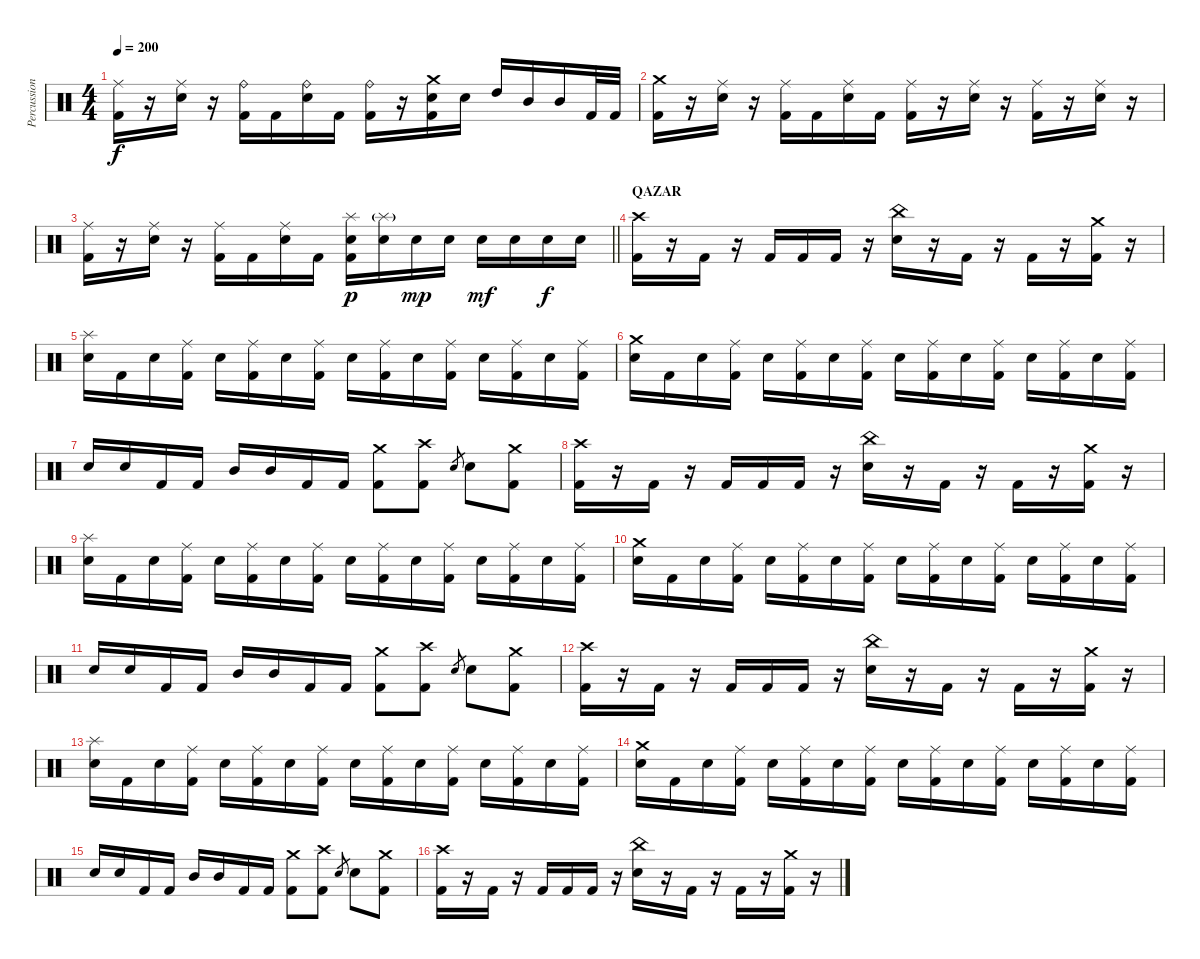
\track ("Percussion" "Percussion") {instrument percussion}
\staff {score}
\articulation defaults
\ts (4 4)
\tempo 200
\clef neutral
\ks c
("Ride (middle)" "Kick (hit) 2").16{dy f} r.16 ("Ride (middle)" "Electric Snare (hit)").16 r.16 ("Ride (bell)" "Kick (hit) 2").16 "Kick (hit) 2".16 ("Ride (bell)" "Electric Snare (hit)").16 "Kick (hit) 2".16 ("Ride (bell)" "Kick (hit) 2").16 r.16 ("Crash medium (hit)" "Electric Snare (hit)" "Kick (hit) 2").16 "Electric Snare (hit)".16 "High Tom (hit)".16 "Mid Tom (hit)".16 "Mid Tom (hit)".16 "Kick (hit) 2".32 "Kick (hit) 2".32 |
("Crash medium (hit)" "Kick (hit) 2").16 r.16 ("Ride (middle)" "Electric Snare (hit)").16 r.16 ("Ride (middle)" "Kick (hit) 2").16 "Kick (hit) 2".16 ("Ride (middle)" "Electric Snare (hit)").16 "Kick (hit) 2".16 ("Ride (middle)" "Kick (hit) 2").16 r.16 ("Ride (middle)" "Electric Snare (hit)").16 r.16 ("Ride (middle)" "Kick (hit) 2").16 r.16 ("Ride (middle)" "Electric Snare (hit)").16 r.16 |
\barLineRight lightlight
("Ride (middle)" "Kick (hit) 2").16 r.16 ("Ride (middle)" "Electric Snare (hit)").16 r.16 ("Ride (middle)" "Kick (hit) 2").16 "Kick (hit) 2".16 ("Ride (middle)" "Electric Snare (hit)").16 "Kick (hit) 2".16 ("Splash (hit)" "Electric Snare (hit)" "Kick (hit) 2").16{dy p} ("Splash (hit)"{g} "Electric Snare (hit)").16 "Electric Snare (hit)".16{dy mp} "Electric Snare (hit)".16 "Electric Snare (hit)".16{dy mf} "Electric Snare (hit)".16 "Electric Snare (hit)".16{dy f} "Electric Snare (hit)".16 |
\section ("" "QAZAR")
("Crash high (hit)" "Kick (hit) 2").16 r.16 "Kick (hit) 2".16 r.16 "Kick (hit) 2".16 "Kick (hit) 2".16 "Kick (hit) 2".16 r.16 ("China (hit)" "Electric Snare (hit)").16 r.16 "Kick (hit) 2".16 r.16 "Kick (hit) 2".16 r.16 ("Crash medium (hit)" "Kick (hit) 2").16 r.16 |
("Splash (hit)" "Electric Snare (hit)").16 "Kick (hit) 2".16 "Electric Snare (hit)".16 ("Ride (middle)" "Kick (hit) 2").16 "Electric Snare (hit)".16 ("Ride (middle)" "Kick (hit) 2").16 "Electric Snare (hit)".16 ("Ride (middle)" "Kick (hit) 2").16 "Electric Snare (hit)".16 ("Ride (middle)" "Kick (hit) 2").16 "Electric Snare (hit)".16 ("Ride (middle)" "Kick (hit) 2").16 "Electric Snare (hit)".16 ("Ride (middle)" "Kick (hit) 2").16 "Electric Snare (hit)".16 ("Ride (middle)" "Kick (hit) 2").16 |
("Crash medium (hit)" "Electric Snare (hit)").16 "Kick (hit) 2".16 "Electric Snare (hit)".16 ("Ride (middle)" "Kick (hit) 2").16 "Electric Snare (hit)".16 ("Ride (middle)" "Kick (hit) 2").16 "Electric Snare (hit)".16 ("Ride (middle)" "Kick (hit) 2").16 "Electric Snare (hit)".16 ("Ride (middle)" "Kick (hit) 2").16 "Electric Snare (hit)".16 ("Ride (middle)" "Kick (hit) 2").16 "Electric Snare (hit)".16 ("Ride (middle)" "Kick (hit) 2").16 "Electric Snare (hit)".16 ("Ride (middle)" "Kick (hit) 2").16 |
"Electric Snare (hit)".16 "Electric Snare (hit)".16 "Kick (hit) 2".16 "Kick (hit) 2".16 "Mid Tom (hit)".16 "Mid Tom (hit)".16 "Kick (hit) 2".16 "Kick (hit) 2".16 ("Crash medium (hit)" "Kick (hit) 2").8 ("Crash high (hit)" "Kick (hit) 2").8 "Electric Snare (hit)".8{gr} "Electric Snare (hit)".8 ("Crash medium (hit)" "Kick (hit) 2").8 |
("Crash high (hit)" "Kick (hit) 2").16 r.16 "Kick (hit) 2".16 r.16 "Kick (hit) 2".16 "Kick (hit) 2".16 "Kick (hit) 2".16 r.16 ("China (hit)" "Electric Snare (hit)").16 r.16 "Kick (hit) 2".16 r.16 "Kick (hit) 2".16 r.16 ("Crash medium (hit)" "Kick (hit) 2").16 r.16 |
("Splash (hit)" "Electric Snare (hit)").16 "Kick (hit) 2".16 "Electric Snare (hit)".16 ("Ride (middle)" "Kick (hit) 2").16 "Electric Snare (hit)".16 ("Ride (middle)" "Kick (hit) 2").16 "Electric Snare (hit)".16 ("Ride (middle)" "Kick (hit) 2").16 "Electric Snare (hit)".16 ("Ride (middle)" "Kick (hit) 2").16 "Electric Snare (hit)".16 ("Ride (middle)" "Kick (hit) 2").16 "Electric Snare (hit)".16 ("Ride (middle)" "Kick (hit) 2").16 "Electric Snare (hit)".16 ("Ride (middle)" "Kick (hit) 2").16 |
("Crash medium (hit)" "Electric Snare (hit)").16 "Kick (hit) 2".16 "Electric Snare (hit)".16 ("Ride (middle)" "Kick (hit) 2").16 "Electric Snare (hit)".16 ("Ride (middle)" "Kick (hit) 2").16 "Electric Snare (hit)".16 ("Ride (middle)" "Kick (hit) 2").16 "Electric Snare (hit)".16 ("Ride (middle)" "Kick (hit) 2").16 "Electric Snare (hit)".16 ("Ride (middle)" "Kick (hit) 2").16 "Electric Snare (hit)".16 ("Ride (middle)" "Kick (hit) 2").16 "Electric Snare (hit)".16 ("Ride (middle)" "Kick (hit) 2").16 |
"Electric Snare (hit)".16 "Electric Snare (hit)".16 "Kick (hit) 2".16 "Kick (hit) 2".16 "Mid Tom (hit)".16 "Mid Tom (hit)".16 "Kick (hit) 2".16 "Kick (hit) 2".16 ("Crash medium (hit)" "Kick (hit) 2").8 ("Crash high (hit)" "Kick (hit) 2").8 "Electric Snare (hit)".8{gr} "Electric Snare (hit)".8 ("Crash medium (hit)" "Kick (hit) 2").8 |
("Crash high (hit)" "Kick (hit) 2").16 r.16 "Kick (hit) 2".16 r.16 "Kick (hit) 2".16 "Kick (hit) 2".16 "Kick (hit) 2".16 r.16 ("China (hit)" "Electric Snare (hit)").16 r.16 "Kick (hit) 2".16 r.16 "Kick (hit) 2".16 r.16 ("Crash medium (hit)" "Kick (hit) 2").16 r.16 |
("Splash (hit)" "Electric Snare (hit)").16 "Kick (hit) 2".16 "Electric Snare (hit)".16 ("Ride (middle)" "Kick (hit) 2").16 "Electric Snare (hit)".16 ("Ride (middle)" "Kick (hit) 2").16 "Electric Snare (hit)".16 ("Ride (middle)" "Kick (hit) 2").16 "Electric Snare (hit)".16 ("Ride (middle)" "Kick (hit) 2").16 "Electric Snare (hit)".16 ("Ride (middle)" "Kick (hit) 2").16 "Electric Snare (hit)".16 ("Ride (middle)" "Kick (hit) 2").16 "Electric Snare (hit)".16 ("Ride (middle)" "Kick (hit) 2").16 |
("Crash medium (hit)" "Electric Snare (hit)").16 "Kick (hit) 2".16 "Electric Snare (hit)".16 ("Ride (middle)" "Kick (hit) 2").16 "Electric Snare (hit)".16 ("Ride (middle)" "Kick (hit) 2").16 "Electric Snare (hit)".16 ("Ride (middle)" "Kick (hit) 2").16 "Electric Snare (hit)".16 ("Ride (middle)" "Kick (hit) 2").16 "Electric Snare (hit)".16 ("Ride (middle)" "Kick (hit) 2").16 "Electric Snare (hit)".16 ("Ride (middle)" "Kick (hit) 2").16 "Electric Snare (hit)".16 ("Ride (middle)" "Kick (hit) 2").16 |
"Electric Snare (hit)".16 "Electric Snare (hit)".16 "Kick (hit) 2".16 "Kick (hit) 2".16 "Mid Tom (hit)".16 "Mid Tom (hit)".16 "Kick (hit) 2".16 "Kick (hit) 2".16 ("Crash medium (hit)" "Kick (hit) 2").8 ("Crash high (hit)" "Kick (hit) 2").8 "Electric Snare (hit)".8{gr} "Electric Snare (hit)".8 ("Crash medium (hit)" "Kick (hit) 2").8 |
("Crash high (hit)" "Kick (hit) 2").16 r.16 "Kick (hit) 2".16 r.16 "Kick (hit) 2".16 "Kick (hit) 2".16 "Kick (hit) 2".16 r.16 ("China (hit)" "Electric Snare (hit)").16 r.16 "Kick (hit) 2".16 r.16 "Kick (hit) 2".16 r.16 ("Crash medium (hit)" "Kick (hit) 2").16 r.16
